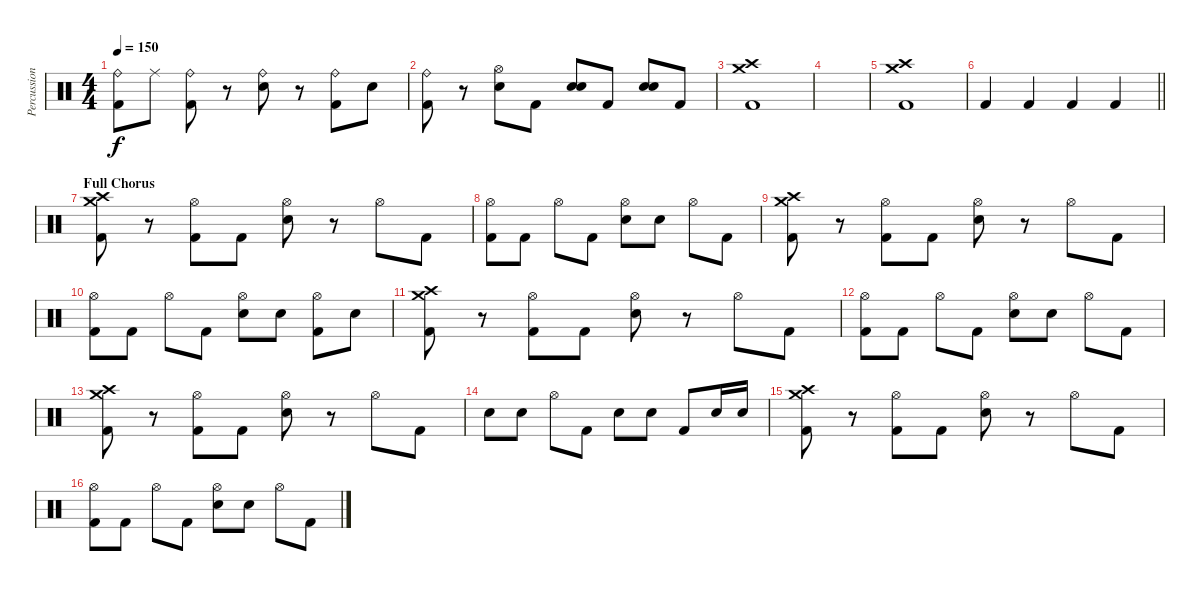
\track ("Percussion" "Percussion") {instrument percussion}
\staff {score}
\articulation defaults
\ts (4 4)
\tempo 150
\clef neutral
\ks c
("Ride (bell)" "Kick (hit) 2").8{dy f} "Ride (middle)".8 ("Ride (bell)" "Kick (hit) 2").8 r.8 ("Ride (bell)" "Electric Snare (hit)").8 r.8 ("Ride (bell)" "Kick (hit) 2").8 "Electric Snare (hit)".8 |
("Ride (bell)" "Kick (hit) 2").8 r.8 ("Hi-Hat (open)" "Electric Snare (hit)").8 "Kick (hit) 2".8 ("Electric Snare (hit)" "Electric Snare (hit)").8{bu 240} "Kick (hit) 2".8 ("Electric Snare (hit)" "Electric Snare (hit)").8{bu 240} "Kick (hit) 2".8 |
("Crash high (hit)" "Crash medium (hit)" "Kick (hit) 2").1 |
|
("Crash medium (hit)" "Crash high (hit)" "Kick (hit) 2").1 |
\barLineRight lightlight "Kick (hit) 2".4 "Kick (hit) 2".4 "Kick (hit) 2".4 "Kick (hit) 2".4
|
\section ("" "Full Chorus")
("Crash high (hit)" "Crash medium (hit)" "Kick (hit) 2").8 r.8 ("Hi-Hat (open)" "Kick (hit) 2").8 "Kick (hit) 2".8 ("Hi-Hat (open)" "Electric Snare (hit)").8 r.8 "Hi-Hat (open)".8 "Kick (hit) 2".8 |
("Hi-Hat (open)" "Kick (hit) 2").8 "Kick (hit) 2".8 "Hi-Hat (open)".8 "Kick (hit) 2".8 ("Hi-Hat (open)" "Electric Snare (hit)").8 "Electric Snare (hit)".8 "Hi-Hat (open)".8 "Kick (hit) 2".8 |
("Crash high (hit)" "Crash medium (hit)" "Kick (hit) 2").8 r.8 ("Hi-Hat (open)" "Kick (hit) 2").8 "Kick (hit) 2".8 ("Hi-Hat (open)" "Electric Snare (hit)").8 r.8 "Hi-Hat (open)".8 "Kick (hit) 2".8 |
("Hi-Hat (open)" "Kick (hit) 2").8 "Kick (hit) 2".8 "Hi-Hat (open)".8 "Kick (hit) 2".8 ("Hi-Hat (open)" "Electric Snare (hit)").8 "Electric Snare (hit)".8 ("Hi-Hat (open)" "Kick (hit) 2").8 "Electric Snare (hit)".8 |
("Crash high (hit)" "Crash medium (hit)" "Kick (hit) 2").8 r.8 ("Hi-Hat (open)" "Kick (hit) 2").8 "Kick (hit) 2".8 ("Hi-Hat (open)" "Electric Snare (hit)").8 r.8 "Hi-Hat (open)".8 "Kick (hit) 2".8 |
("Hi-Hat (open)" "Kick (hit) 2").8 "Kick (hit) 2".8 "Hi-Hat (open)".8 "Kick (hit) 2".8 ("Hi-Hat (open)" "Electric Snare (hit)").8 "Electric Snare (hit)".8 "Hi-Hat (open)".8 "Kick (hit) 2".8 |
("Crash high (hit)" "Crash medium (hit)" "Kick (hit) 2").8 r.8 ("Hi-Hat (open)" "Kick (hit) 2").8 "Kick (hit) 2".8 ("Hi-Hat (open)" "Electric Snare (hit)").8 r.8 "Hi-Hat (open)".8 "Kick (hit) 2".8 |
"Electric Snare (hit)".8 "Electric Snare (hit)".8 "Hi-Hat (open)".8 "Kick (hit) 2".8 "Electric Snare (hit)".8 "Electric Snare (hit)".8 "Kick (hit) 2".8 "Electric Snare (hit)".16 "Electric Snare (hit)".16 |
("Crash high (hit)" "Crash medium (hit)" "Kick (hit) 2").8 r.8 ("Hi-Hat (open)" "Kick (hit) 2").8 "Kick (hit) 2".8 ("Hi-Hat (open)" "Electric Snare (hit)").8 r.8 "Hi-Hat (open)".8 "Kick (hit) 2".8 |
("Hi-Hat (open)" "Kick (hit) 2").8 "Kick (hit) 2".8 "Hi-Hat (open)".8 "Kick (hit) 2".8 ("Hi-Hat (open)" "Electric Snare (hit)").8 "Electric Snare (hit)".8 "Hi-Hat (open)".8 "Kick (hit) 2".8
